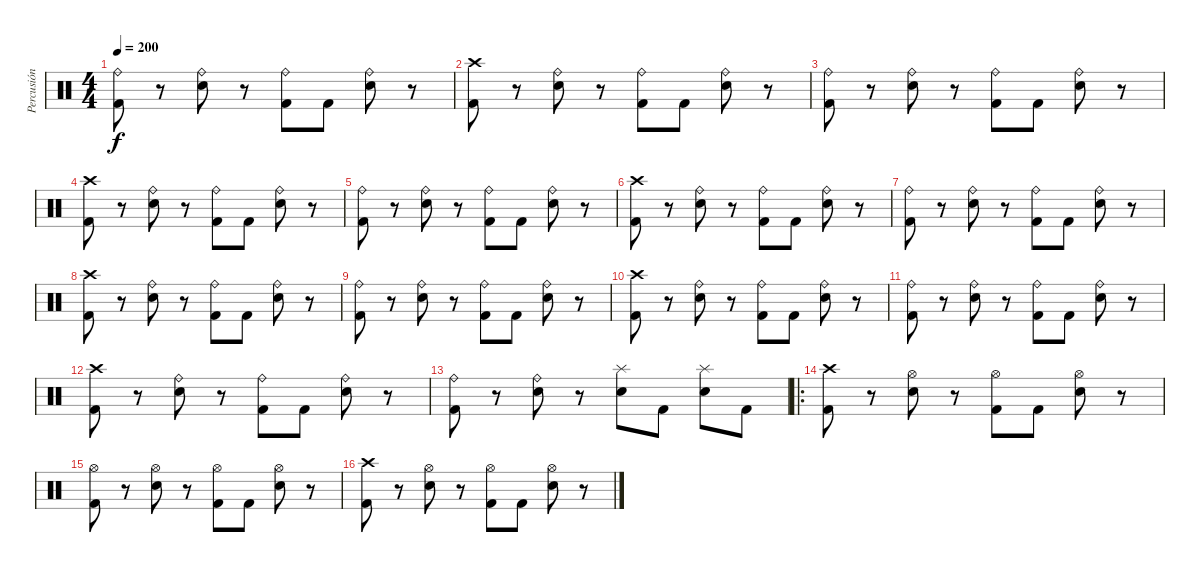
\track ("Percusión" "Percusión") {instrument percussion}
\staff {score}
\articulation defaults
\ts (4 4)
\tempo 200
\clef neutral
\ks c
("Ride (bell)" "Kick (hit) 2").8{dy f} r.8 ("Ride (bell)" "Electric Snare (hit)").8 r.8 ("Ride (bell)" "Kick (hit) 2").8 "Kick (hit) 2".8 ("Ride (bell)" "Electric Snare (hit)").8 r.8 |
("Crash high (hit)" "Kick (hit) 2").8 r.8 ("Ride (bell)" "Electric Snare (hit)").8 r.8 ("Ride (bell)" "Kick (hit) 2").8 "Kick (hit) 2".8 ("Ride (bell)" "Electric Snare (hit)").8 r.8 |
("Ride (bell)" "Kick (hit) 2").8 r.8 ("Ride (bell)" "Electric Snare (hit)").8 r.8 ("Ride (bell)" "Kick (hit) 2").8 "Kick (hit) 2".8 ("Ride (bell)" "Electric Snare (hit)").8 r.8 |
("Crash high (hit)" "Kick (hit) 2").8 r.8 ("Ride (bell)" "Electric Snare (hit)").8 r.8 ("Ride (bell)" "Kick (hit) 2").8 "Kick (hit) 2".8 ("Ride (bell)" "Electric Snare (hit)").8 r.8 |
("Ride (bell)" "Kick (hit) 2").8 r.8 ("Ride (bell)" "Electric Snare (hit)").8 r.8 ("Ride (bell)" "Kick (hit) 2").8 "Kick (hit) 2".8 ("Ride (bell)" "Electric Snare (hit)").8 r.8 |
("Crash high (hit)" "Kick (hit) 2").8 r.8 ("Ride (bell)" "Electric Snare (hit)").8 r.8 ("Ride (bell)" "Kick (hit) 2").8 "Kick (hit) 2".8 ("Ride (bell)" "Electric Snare (hit)").8 r.8 |
("Ride (bell)" "Kick (hit) 2").8 r.8 ("Ride (bell)" "Electric Snare (hit)").8 r.8 ("Ride (bell)" "Kick (hit) 2").8 "Kick (hit) 2".8 ("Ride (bell)" "Electric Snare (hit)").8 r.8 |
("Crash high (hit)" "Kick (hit) 2").8 r.8 ("Ride (bell)" "Electric Snare (hit)").8 r.8 ("Ride (bell)" "Kick (hit) 2").8 "Kick (hit) 2".8 ("Ride (bell)" "Electric Snare (hit)").8 r.8 |
("Ride (bell)" "Kick (hit) 2").8 r.8 ("Ride (bell)" "Electric Snare (hit)").8 r.8 ("Ride (bell)" "Kick (hit) 2").8 "Kick (hit) 2".8 ("Ride (bell)" "Electric Snare (hit)").8 r.8 |
("Crash high (hit)" "Kick (hit) 2").8 r.8 ("Ride (bell)" "Electric Snare (hit)").8 r.8 ("Ride (bell)" "Kick (hit) 2").8 "Kick (hit) 2".8 ("Ride (bell)" "Electric Snare (hit)").8 r.8 |
("Ride (bell)" "Kick (hit) 2").8 r.8 ("Ride (bell)" "Electric Snare (hit)").8 r.8 ("Ride (bell)" "Kick (hit) 2").8 "Kick (hit) 2".8 ("Ride (bell)" "Electric Snare (hit)").8 r.8 |
("Crash high (hit)" "Kick (hit) 2").8 r.8 ("Ride (bell)" "Electric Snare (hit)").8 r.8 ("Ride (bell)" "Kick (hit) 2").8 "Kick (hit) 2".8 ("Ride (bell)" "Electric Snare (hit)").8 r.8 |
("Ride (bell)" "Kick (hit) 2").8 r.8 ("Ride (bell)" "Electric Snare (hit)").8 r.8 ("Splash (hit)" "Electric Snare (hit)").8 "Kick (hit) 2".8 ("Splash (hit)" "Electric Snare (hit)").8 "Kick (hit) 2".8 |
\ro
("Crash high (hit)" "Kick (hit) 2").8 r.8 ("Hi-Hat (open)" "Electric Snare (hit)").8 r.8 ("Hi-Hat (open)" "Kick (hit) 2").8 "Kick (hit) 2".8 ("Hi-Hat (open)" "Electric Snare (hit)").8 r.8 |
("Hi-Hat (open)" "Kick (hit) 2").8 r.8 ("Hi-Hat (open)" "Electric Snare (hit)").8 r.8 ("Hi-Hat (open)" "Kick (hit) 2").8 "Kick (hit) 2".8 ("Hi-Hat (open)" "Electric Snare (hit)").8 r.8 |
("Crash high (hit)" "Kick (hit) 2").8 r.8 ("Hi-Hat (open)" "Electric Snare (hit)").8 r.8 ("Hi-Hat (open)" "Kick (hit) 2").8 "Kick (hit) 2".8 ("Hi-Hat (open)" "Electric Snare (hit)").8 r.8
